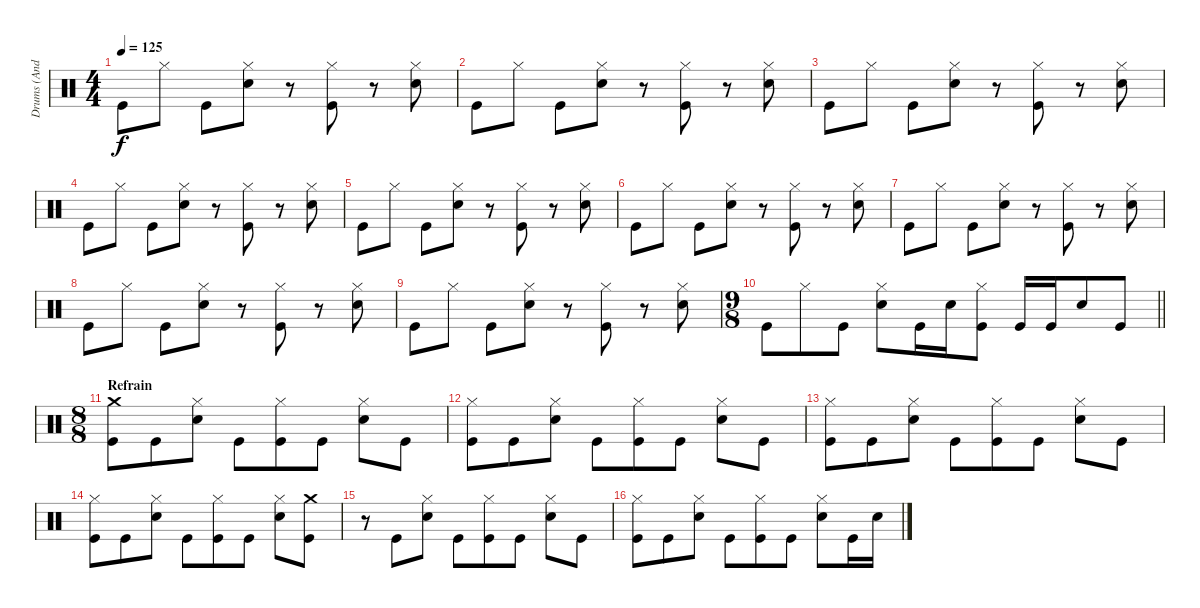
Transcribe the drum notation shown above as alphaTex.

\track ("Drums (Andy Parker)" "Drums (And") {instrument percussion}
\staff {score}
\articulation defaults
\ts (4 4)
\tempo 125
\clef neutral
\ks c "Kick (hit)".8{dy f} "Hi-Hat (closed)".8 "Kick (hit)".8
("Hi-Hat (closed)" "Electric Snare (hit)").8 r.8 ("Hi-Hat (closed)" "Kick (hit)").8 r.8 ("Hi-Hat (closed)" "Electric Snare (hit)").8 |
"Kick (hit)".8 "Hi-Hat (closed)".8 "Kick (hit)".8 ("Hi-Hat (closed)" "Electric Snare (hit)").8 r.8 ("Hi-Hat (closed)" "Kick (hit)").8 r.8 ("Hi-Hat (closed)" "Electric Snare (hit)").8 |
"Kick (hit)".8 "Hi-Hat (closed)".8 "Kick (hit)".8 ("Hi-Hat (closed)" "Electric Snare (hit)").8 r.8 ("Hi-Hat (closed)" "Kick (hit)").8 r.8 ("Hi-Hat (closed)" "Electric Snare (hit)").8 |
"Kick (hit)".8 "Hi-Hat (closed)".8 "Kick (hit)".8 ("Hi-Hat (closed)" "Electric Snare (hit)").8 r.8 ("Hi-Hat (closed)" "Kick (hit)").8 r.8 ("Hi-Hat (closed)" "Electric Snare (hit)").8 |
"Kick (hit)".8 "Hi-Hat (closed)".8 "Kick (hit)".8 ("Hi-Hat (closed)" "Electric Snare (hit)").8 r.8 ("Hi-Hat (closed)" "Kick (hit)").8 r.8 ("Hi-Hat (closed)" "Electric Snare (hit)").8 |
"Kick (hit)".8 "Hi-Hat (closed)".8 "Kick (hit)".8 ("Hi-Hat (closed)" "Electric Snare (hit)").8 r.8 ("Hi-Hat (closed)" "Kick (hit)").8 r.8 ("Hi-Hat (closed)" "Electric Snare (hit)").8 |
"Kick (hit)".8 "Hi-Hat (closed)".8 "Kick (hit)".8 ("Hi-Hat (closed)" "Electric Snare (hit)").8 r.8 ("Hi-Hat (closed)" "Kick (hit)").8 r.8 ("Hi-Hat (closed)" "Electric Snare (hit)").8 |
"Kick (hit)".8 "Hi-Hat (closed)".8 "Kick (hit)".8 ("Hi-Hat (closed)" "Electric Snare (hit)").8 r.8 ("Hi-Hat (closed)" "Kick (hit)").8 r.8 ("Hi-Hat (closed)" "Electric Snare (hit)").8 |
"Kick (hit)".8 "Hi-Hat (closed)".8 "Kick (hit)".8 ("Hi-Hat (closed)" "Electric Snare (hit)").8 r.8 ("Hi-Hat (closed)" "Kick (hit)").8 r.8 ("Hi-Hat (closed)" "Electric Snare (hit)").8 |
\ts (9 8)
\barLineRight lightlight "Kick (hit)".8 "Hi-Hat (closed)".8 "Kick (hit)".8
("Hi-Hat (closed)" "Electric Snare (hit)").8 "Kick (hit)".16 "Electric Snare (hit)".16 ("Hi-Hat (closed)" "Kick (hit)").8 "Kick (hit)".16 "Kick (hit)".16 "Electric Snare (hit)".8 "Kick (hit)".8 |
\ts (8 8)
\section ("" "Refrain")
("Crash medium (hit)" "Kick (hit)").8 "Kick (hit)".8 ("Hi-Hat (closed)" "Electric Snare (hit)").8 "Kick (hit)".8 ("Hi-Hat (closed)" "Kick (hit)").8 "Kick (hit)".8 ("Hi-Hat (closed)" "Electric Snare (hit)").8 "Kick (hit)".8 |
("Hi-Hat (closed)" "Kick (hit)").8 "Kick (hit)".8 ("Hi-Hat (closed)" "Electric Snare (hit)").8 "Kick (hit)".8 ("Hi-Hat (closed)" "Kick (hit)").8 "Kick (hit)".8 ("Hi-Hat (closed)" "Electric Snare (hit)").8 "Kick (hit)".8 |
("Hi-Hat (closed)" "Kick (hit)").8 "Kick (hit)".8 ("Hi-Hat (closed)" "Electric Snare (hit)").8 "Kick (hit)".8 ("Hi-Hat (closed)" "Kick (hit)").8 "Kick (hit)".8 ("Hi-Hat (closed)" "Electric Snare (hit)").8 "Kick (hit)".8 |
("Hi-Hat (closed)" "Kick (hit)").8 "Kick (hit)".8 ("Hi-Hat (closed)" "Electric Snare (hit)").8 "Kick (hit)".8 ("Hi-Hat (closed)" "Kick (hit)").8 "Kick (hit)".8 ("Hi-Hat (closed)" "Electric Snare (hit)").8 ("Crash medium (hit)" "Kick (hit)").8 |
r.8 "Kick (hit)".8 ("Hi-Hat (closed)" "Electric Snare (hit)").8 "Kick (hit)".8 ("Hi-Hat (closed)" "Kick (hit)").8 "Kick (hit)".8 ("Hi-Hat (closed)" "Electric Snare (hit)").8 "Kick (hit)".8 |
("Hi-Hat (closed)" "Kick (hit)").8 "Kick (hit)".8 ("Hi-Hat (closed)" "Electric Snare (hit)").8 "Kick (hit)".8 ("Hi-Hat (closed)" "Kick (hit)").8 "Kick (hit)".8 ("Hi-Hat (closed)" "Electric Snare (hit)").8 "Kick (hit)".16 "Electric Snare (hit)".16
